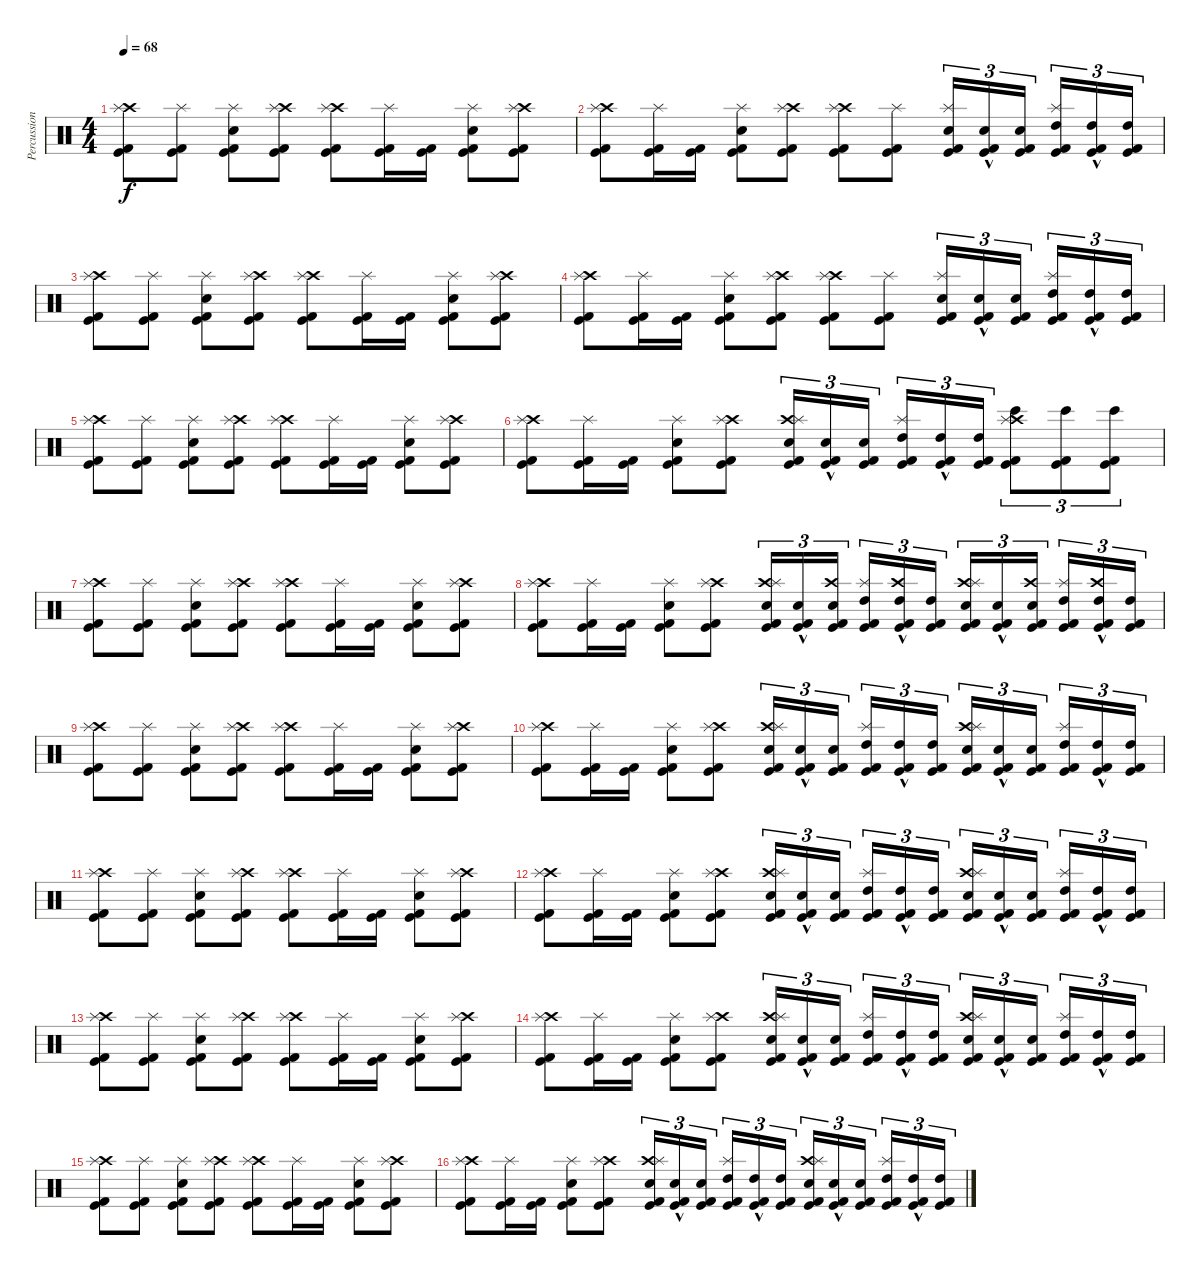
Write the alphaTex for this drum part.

\track ("Percussion" "Percussion") {instrument percussion}
\staff {score}
\articulation defaults
\ts (4 4)
\tempo 68
\clef neutral
\ks c
("Kick (hit)" "Kick (hit) 2" "Crash high (hit)" "Splash (hit)").8{dy f} ("Kick (hit)" "Kick (hit) 2" "Splash (hit)").8 ("Kick (hit)" "Kick (hit) 2" "Snare (hit) 2" "Splash (hit)").8 ("Kick (hit)" "Kick (hit) 2" "Crash high (hit)" "Splash (hit)").8 ("Kick (hit)" "Kick (hit) 2" "Crash high (hit)" "Splash (hit)").8 ("Kick (hit)" "Kick (hit) 2" "Splash (hit)").16 ("Kick (hit)" "Kick (hit) 2").16 ("Kick (hit)" "Kick (hit) 2" "Snare (hit) 2" "Splash (hit)").8 ("Kick (hit)" "Kick (hit) 2" "Crash high (hit)" "Splash (hit)").8 |
("Kick (hit)" "Kick (hit) 2" "Crash high (hit)" "Splash (hit)").8 ("Kick (hit)" "Kick (hit) 2" "Splash (hit)").16 ("Kick (hit)" "Kick (hit) 2").16 ("Kick (hit)" "Kick (hit) 2" "Snare (hit) 2" "Splash (hit)").8 ("Kick (hit)" "Kick (hit) 2" "Crash high (hit)" "Splash (hit)").8 ("Kick (hit)" "Kick (hit) 2" "Crash high (hit)" "Splash (hit)").8 ("Kick (hit)" "Kick (hit) 2" "Splash (hit)").8 ("Kick (hit)" "Kick (hit) 2" "Snare (hit) 2" "Splash (hit)").16{tu (3 2)} ("Kick (hit)"{hac} "Kick (hit) 2"{hac} "Snare (hit) 2"{hac}).16{tu (3 2)} ("Kick (hit)" "Kick (hit) 2" "Snare (hit) 2").16{tu (3 2)} ("Kick (hit)" "Kick (hit) 2" "High Tom (hit)" "Splash (hit)").16{tu (3 2)} ("Kick (hit)"{hac} "Kick (hit) 2"{hac} "High Tom (hit)"{hac}).16{tu (3 2)} ("Kick (hit)" "Kick (hit) 2" "High Tom (hit)").16{tu (3 2)} |
("Kick (hit)" "Kick (hit) 2" "Crash high (hit)" "Splash (hit)").8 ("Kick (hit)" "Kick (hit) 2" "Splash (hit)").8 ("Kick (hit)" "Kick (hit) 2" "Snare (hit) 2" "Splash (hit)").8 ("Kick (hit)" "Kick (hit) 2" "Crash high (hit)" "Splash (hit)").8 ("Kick (hit)" "Kick (hit) 2" "Crash high (hit)" "Splash (hit)").8 ("Kick (hit)" "Kick (hit) 2" "Splash (hit)").16 ("Kick (hit)" "Kick (hit) 2").16 ("Kick (hit)" "Kick (hit) 2" "Snare (hit) 2" "Splash (hit)").8 ("Kick (hit)" "Kick (hit) 2" "Crash high (hit)" "Splash (hit)").8 |
("Kick (hit)" "Kick (hit) 2" "Crash high (hit)" "Splash (hit)").8 ("Kick (hit)" "Kick (hit) 2" "Splash (hit)").16 ("Kick (hit)" "Kick (hit) 2").16 ("Kick (hit)" "Kick (hit) 2" "Snare (hit) 2" "Splash (hit)").8 ("Kick (hit)" "Kick (hit) 2" "Crash high (hit)" "Splash (hit)").8 ("Kick (hit)" "Kick (hit) 2" "Crash high (hit)" "Splash (hit)").8 ("Kick (hit)" "Kick (hit) 2" "Splash (hit)").8 ("Kick (hit)" "Kick (hit) 2" "Snare (hit) 2" "Splash (hit)").16{tu (3 2)} ("Kick (hit)"{hac} "Kick (hit) 2"{hac} "Snare (hit) 2"{hac}).16{tu (3 2)} ("Kick (hit)" "Kick (hit) 2" "Snare (hit) 2").16{tu (3 2)} ("Kick (hit)" "Kick (hit) 2" "High Tom (hit)" "Splash (hit)").16{tu (3 2)} ("Kick (hit)"{hac} "Kick (hit) 2"{hac} "High Tom (hit)"{hac}).16{tu (3 2)} ("Kick (hit)" "Kick (hit) 2" "High Tom (hit)").16{tu (3 2)} |
("Kick (hit)" "Kick (hit) 2" "Crash high (hit)" "Splash (hit)").8 ("Kick (hit)" "Kick (hit) 2" "Splash (hit)").8 ("Kick (hit)" "Kick (hit) 2" "Snare (hit) 2" "Splash (hit)").8 ("Kick (hit)" "Kick (hit) 2" "Crash high (hit)" "Splash (hit)").8 ("Kick (hit)" "Kick (hit) 2" "Crash high (hit)" "Splash (hit)").8 ("Kick (hit)" "Kick (hit) 2" "Splash (hit)").16 ("Kick (hit)" "Kick (hit) 2").16 ("Kick (hit)" "Kick (hit) 2" "Snare (hit) 2" "Splash (hit)").8 ("Kick (hit)" "Kick (hit) 2" "Crash high (hit)" "Splash (hit)").8 |
("Kick (hit)" "Kick (hit) 2" "Crash high (hit)" "Splash (hit)").8 ("Kick (hit)" "Kick (hit) 2" "Splash (hit)").16 ("Kick (hit)" "Kick (hit) 2").16 ("Kick (hit)" "Kick (hit) 2" "Snare (hit) 2" "Splash (hit)").8 ("Kick (hit)" "Kick (hit) 2" "Crash high (hit)" "Splash (hit)").8 ("Kick (hit)" "Kick (hit) 2" "Snare (hit) 2" "Crash high (hit)" "Splash (hit)").16{tu (3 2)} ("Kick (hit)"{hac} "Kick (hit) 2"{hac} "Snare (hit) 2"{hac}).16{tu (3 2)} ("Kick (hit)" "Kick (hit) 2" "Snare (hit) 2").16{tu (3 2)} ("Kick (hit)" "Kick (hit) 2" "High Tom (hit)" "Splash (hit)").16{tu (3 2)} ("Kick (hit)"{hac} "Kick (hit) 2"{hac} "High Tom (hit)"{hac}).16{tu (3 2)} ("Kick (hit)" "Kick (hit) 2" "High Tom (hit)").16{tu (3 2)} ("Bongo High (hit)" "Kick (hit)" "Kick (hit) 2" "Crash high (hit)" "Splash (hit)").8{tu (3 2)} ("Bongo High (hit)" "Kick (hit)" "Kick (hit) 2").8{tu (3 2)} ("Bongo High (hit)" "Kick (hit)" "Kick (hit) 2").8{tu (3 2)} |
("Kick (hit)" "Kick (hit) 2" "Crash high (hit)" "Splash (hit)").8 ("Kick (hit)" "Kick (hit) 2" "Splash (hit)").8 ("Kick (hit)" "Kick (hit) 2" "Snare (hit) 2" "Splash (hit)").8 ("Kick (hit)" "Kick (hit) 2" "Crash high (hit)" "Splash (hit)").8 ("Kick (hit)" "Kick (hit) 2" "Crash high (hit)" "Splash (hit)").8 ("Kick (hit)" "Kick (hit) 2" "Splash (hit)").16 ("Kick (hit)" "Kick (hit) 2").16 ("Kick (hit)" "Kick (hit) 2" "Snare (hit) 2" "Splash (hit)").8 ("Kick (hit)" "Kick (hit) 2" "Crash high (hit)" "Splash (hit)").8 |
("Kick (hit)" "Kick (hit) 2" "Crash high (hit)" "Splash (hit)").8 ("Kick (hit)" "Kick (hit) 2" "Splash (hit)").16 ("Kick (hit)" "Kick (hit) 2").16 ("Kick (hit)" "Kick (hit) 2" "Snare (hit) 2" "Splash (hit)").8 ("Kick (hit)" "Kick (hit) 2" "Crash high (hit)" "Splash (hit)").8 ("Kick (hit)" "Kick (hit) 2" "Snare (hit) 2" "Crash high (hit)" "Splash (hit)").16{tu (3 2)} ("Kick (hit)"{hac} "Kick (hit) 2"{hac} "Snare (hit) 2"{hac}).16{tu (3 2)} ("Kick (hit)" "Kick (hit) 2" "Snare (hit) 2" "Crash high (hit)").16{tu (3 2)} ("Kick (hit)" "Kick (hit) 2" "High Tom (hit)" "Splash (hit)").16{tu (3 2)} ("Kick (hit)"{hac} "Kick (hit) 2"{hac} "High Tom (hit)"{hac} "Crash high (hit)"{hac}).16{tu (3 2)} ("Kick (hit)" "Kick (hit) 2" "High Tom (hit)").16{tu (3 2)} ("Kick (hit)" "Kick (hit) 2" "Snare (hit) 2" "Crash high (hit)" "Splash (hit)").16{tu (3 2)} ("Kick (hit)"{hac} "Kick (hit) 2"{hac} "Snare (hit) 2"{hac}).16{tu (3 2)} ("Kick (hit)" "Kick (hit) 2" "Snare (hit) 2" "Crash high (hit)").16{tu (3 2)} ("Kick (hit)" "Kick (hit) 2" "High Tom (hit)" "Splash (hit)").16{tu (3 2)} ("Kick (hit)"{hac} "Kick (hit) 2"{hac} "High Tom (hit)"{hac} "Crash high (hit)"{hac}).16{tu (3 2)} ("Kick (hit)" "Kick (hit) 2" "High Tom (hit)").16{tu (3 2)} |
("Kick (hit)" "Kick (hit) 2" "Crash high (hit)" "Splash (hit)").8 ("Kick (hit)" "Kick (hit) 2" "Splash (hit)").8 ("Kick (hit)" "Kick (hit) 2" "Snare (hit) 2" "Splash (hit)").8 ("Kick (hit)" "Kick (hit) 2" "Crash high (hit)" "Splash (hit)").8 ("Kick (hit)" "Kick (hit) 2" "Crash high (hit)" "Splash (hit)").8 ("Kick (hit)" "Kick (hit) 2" "Splash (hit)").16 ("Kick (hit)" "Kick (hit) 2").16 ("Kick (hit)" "Kick (hit) 2" "Snare (hit) 2" "Splash (hit)").8 ("Kick (hit)" "Kick (hit) 2" "Crash high (hit)" "Splash (hit)").8 |
("Kick (hit)" "Kick (hit) 2" "Crash high (hit)" "Splash (hit)").8 ("Kick (hit)" "Kick (hit) 2" "Splash (hit)").16 ("Kick (hit)" "Kick (hit) 2").16 ("Kick (hit)" "Kick (hit) 2" "Snare (hit) 2" "Splash (hit)").8 ("Kick (hit)" "Kick (hit) 2" "Crash high (hit)" "Splash (hit)").8 ("Kick (hit)" "Kick (hit) 2" "Snare (hit) 2" "Crash high (hit)" "Splash (hit)").16{tu (3 2)} ("Kick (hit)"{hac} "Kick (hit) 2"{hac} "Snare (hit) 2"{hac}).16{tu (3 2)} ("Kick (hit)" "Kick (hit) 2" "Snare (hit) 2").16{tu (3 2)} ("Kick (hit)" "Kick (hit) 2" "High Tom (hit)" "Splash (hit)").16{tu (3 2)} ("Kick (hit)"{hac} "Kick (hit) 2"{hac} "High Tom (hit)"{hac}).16{tu (3 2)} ("Kick (hit)" "Kick (hit) 2" "High Tom (hit)").16{tu (3 2)} ("Kick (hit)" "Kick (hit) 2" "Snare (hit) 2" "Crash high (hit)" "Splash (hit)").16{tu (3 2)} ("Kick (hit)"{hac} "Kick (hit) 2"{hac} "Snare (hit) 2"{hac}).16{tu (3 2)} ("Kick (hit)" "Kick (hit) 2" "Snare (hit) 2").16{tu (3 2)} ("Kick (hit)" "Kick (hit) 2" "High Tom (hit)" "Splash (hit)").16{tu (3 2)} ("Kick (hit)"{hac} "Kick (hit) 2"{hac} "High Tom (hit)"{hac}).16{tu (3 2)} ("Kick (hit)" "Kick (hit) 2" "High Tom (hit)").16{tu (3 2)} |
\section ("" "")
("Kick (hit)" "Kick (hit) 2" "Crash high (hit)" "Splash (hit)").8{volume 10} ("Kick (hit)" "Kick (hit) 2" "Splash (hit)").8 ("Kick (hit)" "Kick (hit) 2" "Snare (hit) 2" "Splash (hit)").8 ("Kick (hit)" "Kick (hit) 2" "Crash high (hit)" "Splash (hit)").8 ("Kick (hit)" "Kick (hit) 2" "Crash high (hit)" "Splash (hit)").8 ("Kick (hit)" "Kick (hit) 2" "Splash (hit)").16 ("Kick (hit)" "Kick (hit) 2").16 ("Kick (hit)" "Kick (hit) 2" "Snare (hit) 2" "Splash (hit)").8 ("Kick (hit)" "Kick (hit) 2" "Crash high (hit)" "Splash (hit)").8 |
("Kick (hit)" "Kick (hit) 2" "Crash high (hit)" "Splash (hit)").8 ("Kick (hit)" "Kick (hit) 2" "Splash (hit)").16 ("Kick (hit)" "Kick (hit) 2").16 ("Kick (hit)" "Kick (hit) 2" "Snare (hit) 2" "Splash (hit)").8 ("Kick (hit)" "Kick (hit) 2" "Crash high (hit)" "Splash (hit)").8 ("Kick (hit)" "Kick (hit) 2" "Snare (hit) 2" "Crash high (hit)" "Splash (hit)").16{tu (3 2)} ("Kick (hit)"{hac} "Kick (hit) 2"{hac} "Snare (hit) 2"{hac}).16{tu (3 2)} ("Kick (hit)" "Kick (hit) 2" "Snare (hit) 2").16{tu (3 2)} ("Kick (hit)" "Kick (hit) 2" "High Tom (hit)" "Splash (hit)").16{tu (3 2)} ("Kick (hit)"{hac} "Kick (hit) 2"{hac} "High Tom (hit)"{hac}).16{tu (3 2)} ("Kick (hit)" "Kick (hit) 2" "High Tom (hit)").16{tu (3 2)} ("Kick (hit)" "Kick (hit) 2" "Snare (hit) 2" "Crash high (hit)" "Splash (hit)").16{tu (3 2)} ("Kick (hit)"{hac} "Kick (hit) 2"{hac} "Snare (hit) 2"{hac}).16{tu (3 2)} ("Kick (hit)" "Kick (hit) 2" "Snare (hit) 2").16{tu (3 2)} ("Kick (hit)" "Kick (hit) 2" "High Tom (hit)" "Splash (hit)").16{tu (3 2)} ("Kick (hit)"{hac} "Kick (hit) 2"{hac} "High Tom (hit)"{hac}).16{tu (3 2)} ("Kick (hit)" "Kick (hit) 2" "High Tom (hit)").16{tu (3 2)} |
("Kick (hit)" "Kick (hit) 2" "Crash high (hit)" "Splash (hit)").8{volume 8} ("Kick (hit)" "Kick (hit) 2" "Splash (hit)").8 ("Kick (hit)" "Kick (hit) 2" "Snare (hit) 2" "Splash (hit)").8 ("Kick (hit)" "Kick (hit) 2" "Crash high (hit)" "Splash (hit)").8 ("Kick (hit)" "Kick (hit) 2" "Crash high (hit)" "Splash (hit)").8 ("Kick (hit)" "Kick (hit) 2" "Splash (hit)").16 ("Kick (hit)" "Kick (hit) 2").16 ("Kick (hit)" "Kick (hit) 2" "Snare (hit) 2" "Splash (hit)").8 ("Kick (hit)" "Kick (hit) 2" "Crash high (hit)" "Splash (hit)").8 |
("Kick (hit)" "Kick (hit) 2" "Crash high (hit)" "Splash (hit)").8 ("Kick (hit)" "Kick (hit) 2" "Splash (hit)").16 ("Kick (hit)" "Kick (hit) 2").16 ("Kick (hit)" "Kick (hit) 2" "Snare (hit) 2" "Splash (hit)").8 ("Kick (hit)" "Kick (hit) 2" "Crash high (hit)" "Splash (hit)").8 ("Kick (hit)" "Kick (hit) 2" "Snare (hit) 2" "Crash high (hit)" "Splash (hit)").16{tu (3 2)} ("Kick (hit)"{hac} "Kick (hit) 2"{hac} "Snare (hit) 2"{hac}).16{tu (3 2)} ("Kick (hit)" "Kick (hit) 2" "Snare (hit) 2").16{tu (3 2)} ("Kick (hit)" "Kick (hit) 2" "High Tom (hit)" "Splash (hit)").16{tu (3 2)} ("Kick (hit)"{hac} "Kick (hit) 2"{hac} "High Tom (hit)"{hac}).16{tu (3 2)} ("Kick (hit)" "Kick (hit) 2" "High Tom (hit)").16{tu (3 2)} ("Kick (hit)" "Kick (hit) 2" "Snare (hit) 2" "Crash high (hit)" "Splash (hit)").16{tu (3 2)} ("Kick (hit)"{hac} "Kick (hit) 2"{hac} "Snare (hit) 2"{hac}).16{tu (3 2)} ("Kick (hit)" "Kick (hit) 2" "Snare (hit) 2").16{tu (3 2)} ("Kick (hit)" "Kick (hit) 2" "High Tom (hit)" "Splash (hit)").16{tu (3 2)} ("Kick (hit)"{hac} "Kick (hit) 2"{hac} "High Tom (hit)"{hac}).16{tu (3 2)} ("Kick (hit)" "Kick (hit) 2" "High Tom (hit)").16{tu (3 2)} |
("Kick (hit)" "Kick (hit) 2" "Crash high (hit)" "Splash (hit)").8{volume 6} ("Kick (hit)" "Kick (hit) 2" "Splash (hit)").8 ("Kick (hit)" "Kick (hit) 2" "Snare (hit) 2" "Splash (hit)").8 ("Kick (hit)" "Kick (hit) 2" "Crash high (hit)" "Splash (hit)").8 ("Kick (hit)" "Kick (hit) 2" "Crash high (hit)" "Splash (hit)").8 ("Kick (hit)" "Kick (hit) 2" "Splash (hit)").16 ("Kick (hit)" "Kick (hit) 2").16 ("Kick (hit)" "Kick (hit) 2" "Snare (hit) 2" "Splash (hit)").8 ("Kick (hit)" "Kick (hit) 2" "Crash high (hit)" "Splash (hit)").8 |
("Kick (hit)" "Kick (hit) 2" "Crash high (hit)" "Splash (hit)").8 ("Kick (hit)" "Kick (hit) 2" "Splash (hit)").16 ("Kick (hit)" "Kick (hit) 2").16 ("Kick (hit)" "Kick (hit) 2" "Snare (hit) 2" "Splash (hit)").8 ("Kick (hit)" "Kick (hit) 2" "Crash high (hit)" "Splash (hit)").8 ("Kick (hit)" "Kick (hit) 2" "Snare (hit) 2" "Crash high (hit)" "Splash (hit)").16{tu (3 2)} ("Kick (hit)"{hac} "Kick (hit) 2"{hac} "Snare (hit) 2"{hac}).16{tu (3 2)} ("Kick (hit)" "Kick (hit) 2" "Snare (hit) 2").16{tu (3 2)} ("Kick (hit)" "Kick (hit) 2" "High Tom (hit)" "Splash (hit)").16{tu (3 2)} ("Kick (hit)"{hac} "Kick (hit) 2"{hac} "High Tom (hit)"{hac}).16{tu (3 2)} ("Kick (hit)" "Kick (hit) 2" "High Tom (hit)").16{tu (3 2)} ("Kick (hit)" "Kick (hit) 2" "Snare (hit) 2" "Crash high (hit)" "Splash (hit)").16{tu (3 2)} ("Kick (hit)"{hac} "Kick (hit) 2"{hac} "Snare (hit) 2"{hac}).16{tu (3 2)} ("Kick (hit)" "Kick (hit) 2" "Snare (hit) 2").16{tu (3 2)} ("Kick (hit)" "Kick (hit) 2" "High Tom (hit)" "Splash (hit)").16{tu (3 2)} ("Kick (hit)"{hac} "Kick (hit) 2"{hac} "High Tom (hit)"{hac}).16{tu (3 2)} ("Kick (hit)" "Kick (hit) 2" "High Tom (hit)").16{tu (3 2)}
